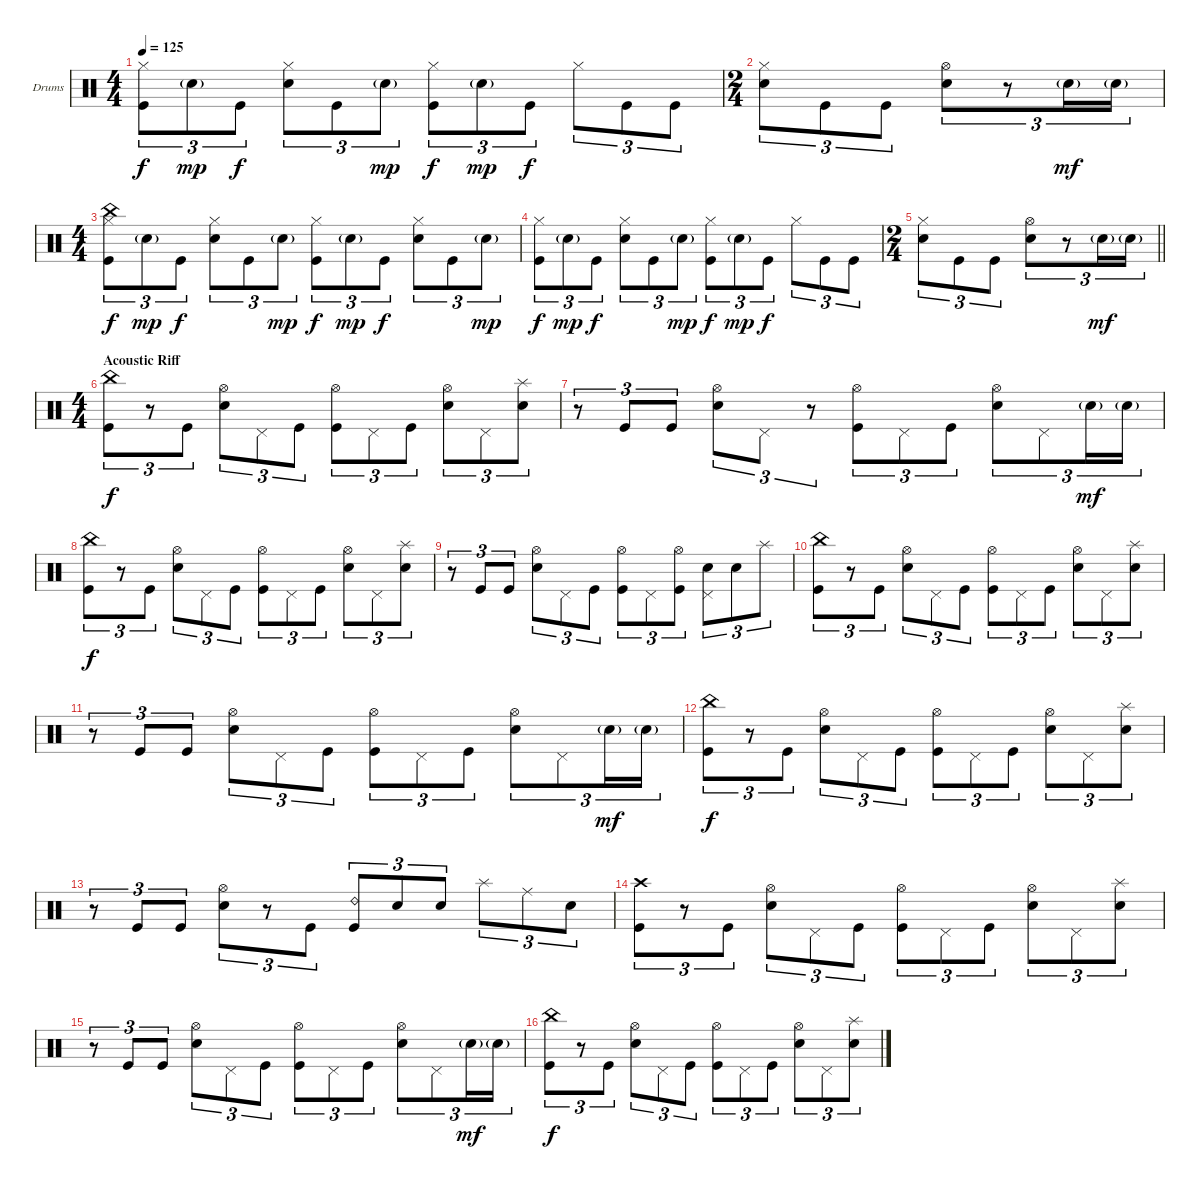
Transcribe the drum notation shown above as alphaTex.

\bracketExtendMode nobrackets
\firstSystemTrackNameOrientation horizontal
\otherSystemsTrackNameOrientation horizontal
\track ("Drumkit" "Drums") {instrument percussion}
\staff {score}
\articulation defaults
\ts (4 4)
\tempo 125
\clef neutral
\ks c
("Hi-Hat (closed)" "Kick (hit)").8{tu (3 2) dy f} "Snare (hit) 2"{g}.8{tu (3 2) dy mp} "Kick (hit)".8{tu (3 2) dy f} ("Hi-Hat (closed)" "Snare (hit) 2").8{tu (3 2)} "Kick (hit)".8{tu (3 2)} "Snare (hit) 2"{g}.8{tu (3 2) dy mp} ("Hi-Hat (closed)" "Kick (hit)").8{tu (3 2) dy f} "Snare (hit) 2"{g}.8{tu (3 2) dy mp} "Kick (hit)".8{tu (3 2) dy f} "Hi-Hat (closed)".8{tu (3 2)} "Kick (hit)".8{tu (3 2)} "Kick (hit)".8{tu (3 2)} |
\ts (2 4)
\beaming (8 2 2)
("Hi-Hat (closed)" "Snare (hit) 2").8{tu (3 2)} "Kick (hit)".8{tu (3 2)} "Kick (hit)".8{tu (3 2)} ("Hi-Hat (open)" "Snare (hit) 2").8{tu (3 2)} r.8{tu (3 2)} "Snare (hit) 2"{g}.16{tu (3 2) dy mf} "Snare (hit) 2"{g}.16{tu (3 2)} |
\ts (4 4)
\beaming (8 2 2 4)
("Hi-Hat (closed)" "China (hit)" "Kick (hit)").8{tu (3 2) dy f} "Snare (hit) 2"{g}.8{tu (3 2) dy mp} "Kick (hit)".8{tu (3 2) dy f} ("Hi-Hat (closed)" "Snare (hit) 2").8{tu (3 2)} "Kick (hit)".8{tu (3 2)} "Snare (hit) 2"{g}.8{tu (3 2) dy mp} ("Hi-Hat (closed)" "Kick (hit)").8{tu (3 2) dy f} "Snare (hit) 2"{g}.8{tu (3 2) dy mp} "Kick (hit)".8{tu (3 2) dy f} ("Hi-Hat (closed)" "Snare (hit) 2").8{tu (3 2)} "Kick (hit)".8{tu (3 2)} "Snare (hit) 2"{g}.8{tu (3 2) dy mp} |
("Hi-Hat (closed)" "Kick (hit)").8{tu (3 2) dy f} "Snare (hit) 2"{g}.8{tu (3 2) dy mp} "Kick (hit)".8{tu (3 2) dy f} ("Hi-Hat (closed)" "Snare (hit) 2").8{tu (3 2)} "Kick (hit)".8{tu (3 2)} "Snare (hit) 2"{g}.8{tu (3 2) dy mp} ("Hi-Hat (closed)" "Kick (hit)").8{tu (3 2) dy f} "Snare (hit) 2"{g}.8{tu (3 2) dy mp} "Kick (hit)".8{tu (3 2) dy f} "Hi-Hat (closed)".8{tu (3 2)} "Kick (hit)".8{tu (3 2)} "Kick (hit)".8{tu (3 2)} |
\ts (2 4)
\beaming (8 2 2)
\barLineRight lightlight
("Hi-Hat (closed)" "Snare (hit) 2").8{tu (3 2)} "Kick (hit)".8{tu (3 2)} "Kick (hit)".8{tu (3 2)} ("Hi-Hat (open)" "Snare (hit) 2").8{tu (3 2)} r.8{tu (3 2)} "Snare (hit) 2"{g}.16{tu (3 2) dy mf} "Snare (hit) 2"{g}.16{tu (3 2)} |
\ts (4 4)
\beaming (8 2 2 2 2)
\section ("" "Acoustic Riff")
("China (hit)" "Kick (hit)").8{tu (3 2) dy f} r.8{tu (3 2)} "Kick (hit)".8{tu (3 2)} ("Hi-Hat (open)" "Snare (hit) 2").8{tu (3 2)} "Pedal Hi-Hat (hit)".8{tu (3 2)} "Kick (hit)".8{tu (3 2)} ("Hi-Hat (open)" "Kick (hit)").8{tu (3 2)} "Pedal Hi-Hat (hit)".8{tu (3 2)} "Kick (hit)".8{tu (3 2)} ("Hi-Hat (open)" "Snare (hit) 2").8{tu (3 2)} "Pedal Hi-Hat (hit)".8{tu (3 2)} ("Splash (hit)" "Snare (hit) 2").8{tu (3 2)} |
r.8{tu (3 2)} "Kick (hit)".8{tu (3 2)} "Kick (hit)".8{tu (3 2)} ("Hi-Hat (open)" "Snare (hit) 2").8{tu (3 2)} "Pedal Hi-Hat (hit)".8{tu (3 2)} r.8{tu (3 2)} ("Hi-Hat (open)" "Kick (hit)").8{tu (3 2)} "Pedal Hi-Hat (hit)".8{tu (3 2)} "Kick (hit)".8{tu (3 2)} ("Hi-Hat (open)" "Snare (hit) 2").8{tu (3 2)} "Pedal Hi-Hat (hit)".8{tu (3 2)} "Snare (hit) 2"{g}.16{tu (3 2) dy mf} "Snare (hit) 2"{g}.16{tu (3 2)} |
("China (hit)" "Kick (hit)").8{tu (3 2) dy f} r.8{tu (3 2)} "Kick (hit)".8{tu (3 2)} ("Hi-Hat (open)" "Snare (hit) 2").8{tu (3 2)} "Pedal Hi-Hat (hit)".8{tu (3 2)} "Kick (hit)".8{tu (3 2)} ("Hi-Hat (open)" "Kick (hit)").8{tu (3 2)} "Pedal Hi-Hat (hit)".8{tu (3 2)} "Kick (hit)".8{tu (3 2)} ("Hi-Hat (open)" "Snare (hit) 2").8{tu (3 2)} "Pedal Hi-Hat (hit)".8{tu (3 2)} ("Splash (hit)" "Snare (hit) 2").8{tu (3 2)} |
r.8{tu (3 2)} "Kick (hit)".8{tu (3 2)} "Kick (hit)".8{tu (3 2)} ("Hi-Hat (open)" "Snare (hit) 2").8{tu (3 2)} "Pedal Hi-Hat (hit)".8{tu (3 2)} "Kick (hit)".8{tu (3 2)} ("Hi-Hat (open)" "Kick (hit)").8{tu (3 2)} "Pedal Hi-Hat (hit)".8{tu (3 2)} ("Hi-Hat (open)" "Kick (hit)").8{tu (3 2)} ("Pedal Hi-Hat (hit)" "Snare (hit) 2").8{tu (3 2)} "Snare (hit) 2".8{tu (3 2)} "Splash (hit)".8{tu (3 2)} |
("China (hit)" "Kick (hit)").8{tu (3 2)} r.8{tu (3 2)} "Kick (hit)".8{tu (3 2)} ("Hi-Hat (open)" "Snare (hit) 2").8{tu (3 2)} "Pedal Hi-Hat (hit)".8{tu (3 2)} "Kick (hit)".8{tu (3 2)} ("Hi-Hat (open)" "Kick (hit)").8{tu (3 2)} "Pedal Hi-Hat (hit)".8{tu (3 2)} "Kick (hit)".8{tu (3 2)} ("Hi-Hat (open)" "Snare (hit) 2").8{tu (3 2)} "Pedal Hi-Hat (hit)".8{tu (3 2)} ("Splash (hit)" "Snare (hit) 2").8{tu (3 2)} |
r.8{tu (3 2)} "Kick (hit)".8{tu (3 2)} "Kick (hit)".8{tu (3 2)} ("Hi-Hat (open)" "Snare (hit) 2").8{tu (3 2)} "Pedal Hi-Hat (hit)".8{tu (3 2)} "Kick (hit)".8{tu (3 2)} ("Hi-Hat (open)" "Kick (hit)").8{tu (3 2)} "Pedal Hi-Hat (hit)".8{tu (3 2)} "Kick (hit)".8{tu (3 2)} ("Hi-Hat (open)" "Snare (hit) 2").8{tu (3 2)} "Pedal Hi-Hat (hit)".8{tu (3 2)} "Snare (hit) 2"{g}.16{tu (3 2) dy mf} "Snare (hit) 2"{g}.16{tu (3 2)} |
("China (hit)" "Kick (hit)").8{tu (3 2) dy f} r.8{tu (3 2)} "Kick (hit)".8{tu (3 2)} ("Hi-Hat (open)" "Snare (hit) 2").8{tu (3 2)} "Pedal Hi-Hat (hit)".8{tu (3 2)} "Kick (hit)".8{tu (3 2)} ("Hi-Hat (open)" "Kick (hit)").8{tu (3 2)} "Pedal Hi-Hat (hit)".8{tu (3 2)} "Kick (hit)".8{tu (3 2)} ("Hi-Hat (open)" "Snare (hit) 2").8{tu (3 2)} "Pedal Hi-Hat (hit)".8{tu (3 2)} ("Splash (hit)" "Snare (hit) 2").8{tu (3 2)} |
r.8{tu (3 2)} "Kick (hit)".8{tu (3 2)} "Kick (hit)".8{tu (3 2)} ("Hi-Hat (open)" "Snare (hit) 2").8{tu (3 2)} r.8{tu (3 2)} "Kick (hit)".8{tu (3 2)} ("Ride (bell) 2" "Kick (hit)").8{tu (3 2)} "Snare (hit) 2".8{tu (3 2)} "Snare (hit) 2".8{tu (3 2)} "Splash (hit)".8{tu (3 2)} "Ride (middle)".8{tu (3 2)} "Snare (hit) 2".8{tu (3 2)} |
("Crash high (hit)" "Kick (hit)").8{tu (3 2)} r.8{tu (3 2)} "Kick (hit)".8{tu (3 2)} ("Hi-Hat (open)" "Snare (hit) 2").8{tu (3 2)} "Pedal Hi-Hat (hit)".8{tu (3 2)} "Kick (hit)".8{tu (3 2)} ("Hi-Hat (open)" "Kick (hit)").8{tu (3 2)} "Pedal Hi-Hat (hit)".8{tu (3 2)} "Kick (hit)".8{tu (3 2)} ("Hi-Hat (open)" "Snare (hit) 2").8{tu (3 2)} "Pedal Hi-Hat (hit)".8{tu (3 2)} ("Splash (hit)" "Snare (hit) 2").8{tu (3 2)} |
r.8{tu (3 2)} "Kick (hit)".8{tu (3 2)} "Kick (hit)".8{tu (3 2)} ("Hi-Hat (open)" "Snare (hit) 2").8{tu (3 2)} "Pedal Hi-Hat (hit)".8{tu (3 2)} "Kick (hit)".8{tu (3 2)} ("Hi-Hat (open)" "Kick (hit)").8{tu (3 2)} "Pedal Hi-Hat (hit)".8{tu (3 2)} "Kick (hit)".8{tu (3 2)} ("Hi-Hat (open)" "Snare (hit) 2").8{tu (3 2)} "Pedal Hi-Hat (hit)".8{tu (3 2)} "Snare (hit) 2"{g}.16{tu (3 2) dy mf} "Snare (hit) 2"{g}.16{tu (3 2)} |
("China (hit)" "Kick (hit)").8{tu (3 2) dy f} r.8{tu (3 2)} "Kick (hit)".8{tu (3 2)} ("Hi-Hat (open)" "Snare (hit) 2").8{tu (3 2)} "Pedal Hi-Hat (hit)".8{tu (3 2)} "Kick (hit)".8{tu (3 2)} ("Hi-Hat (open)" "Kick (hit)").8{tu (3 2)} "Pedal Hi-Hat (hit)".8{tu (3 2)} "Kick (hit)".8{tu (3 2)} ("Hi-Hat (open)" "Snare (hit) 2").8{tu (3 2)} "Pedal Hi-Hat (hit)".8{tu (3 2)} ("Splash (hit)" "Snare (hit) 2").8{tu (3 2)}
